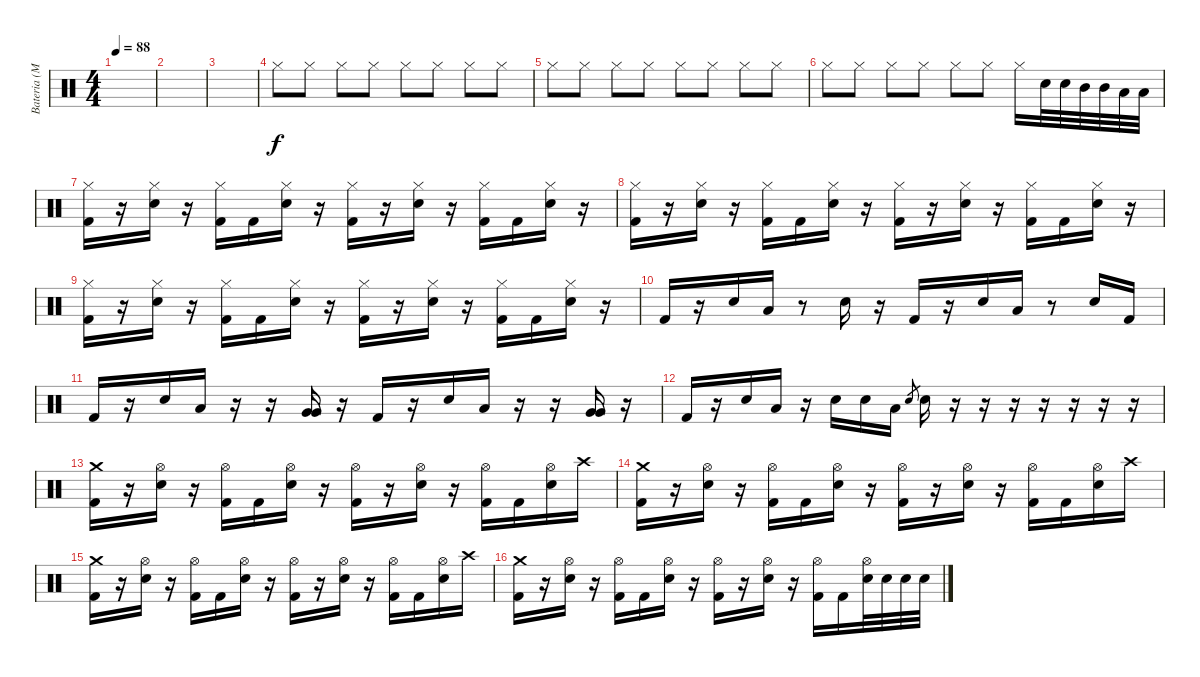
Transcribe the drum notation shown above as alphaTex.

\track ("Bateria (Matt)" "Bateria (M") {instrument percussion}
\staff {score}
\articulation defaults
\ts (4 4)
\tempo 88
\clef neutral
\ks c
|
|
|
"Hi-Hat (closed)".8 "Hi-Hat (closed)".8 "Hi-Hat (closed)".8 "Hi-Hat (closed)".8 "Hi-Hat (closed)".8 "Hi-Hat (closed)".8 "Hi-Hat (closed)".8 "Hi-Hat (closed)".8 |
"Hi-Hat (closed)".8 "Hi-Hat (closed)".8 "Hi-Hat (closed)".8 "Hi-Hat (closed)".8 "Hi-Hat (closed)".8 "Hi-Hat (closed)".8 "Hi-Hat (closed)".8 "Hi-Hat (closed)".8 |
"Hi-Hat (closed)".8 "Hi-Hat (closed)".8 "Hi-Hat (closed)".8 "Hi-Hat (closed)".8 "Hi-Hat (closed)".8 "Hi-Hat (closed)".8 "Hi-Hat (closed)".16 "Electric Snare (hit)".32 "Electric Snare (hit)".32 "Mid Tom (hit)".32 "Mid Tom (hit)".32 "Low Tom (hit)".32 "Low Tom (hit)".32 |
("Hi-Hat (closed)" "Kick (hit) 2").16 r.16 ("Hi-Hat (closed)" "Electric Snare (hit)").16 r.16 ("Hi-Hat (closed)" "Kick (hit) 2").16 "Kick (hit) 2".16 ("Hi-Hat (closed)" "Electric Snare (hit)").16 r.16 ("Hi-Hat (closed)" "Kick (hit) 2").16 r.16 ("Hi-Hat (closed)" "Electric Snare (hit)").16 r.16 ("Hi-Hat (closed)" "Kick (hit) 2").16 "Kick (hit) 2".16 ("Hi-Hat (closed)" "Electric Snare (hit)").16 r.16 |
("Hi-Hat (closed)" "Kick (hit) 2").16 r.16 ("Hi-Hat (closed)" "Electric Snare (hit)").16 r.16 ("Hi-Hat (closed)" "Kick (hit) 2").16 "Kick (hit) 2".16 ("Hi-Hat (closed)" "Electric Snare (hit)").16 r.16 ("Hi-Hat (closed)" "Kick (hit) 2").16 r.16 ("Hi-Hat (closed)" "Electric Snare (hit)").16 r.16 ("Hi-Hat (closed)" "Kick (hit) 2").16 "Kick (hit) 2".16 ("Hi-Hat (closed)" "Electric Snare (hit)").16 r.16 |
("Hi-Hat (closed)" "Kick (hit) 2").16 r.16 ("Hi-Hat (closed)" "Electric Snare (hit)").16 r.16 ("Hi-Hat (closed)" "Kick (hit) 2").16 "Kick (hit) 2".16 ("Hi-Hat (closed)" "Electric Snare (hit)").16 r.16 ("Hi-Hat (closed)" "Kick (hit) 2").16 r.16 ("Hi-Hat (closed)" "Electric Snare (hit)").16 r.16 ("Hi-Hat (closed)" "Kick (hit) 2").16 "Kick (hit) 2".16 ("Hi-Hat (closed)" "Electric Snare (hit)").16 r.16 |
"Kick (hit) 2".16 r.16 "Electric Snare (hit)".16 "Low Tom (hit)".16 r.8 "Electric Snare (hit)".16 r.16 "Kick (hit) 2".16 r.16 "Electric Snare (hit)".16 "Low Tom (hit)".16 r.8 "Electric Snare (hit)".16 "Kick (hit) 2".16 |
"Kick (hit) 2".16 r.16 "Electric Snare (hit)".16 "Low Tom (hit)".16 r.16 r.16 ("Very Low Tom (hit)" "Very Low Tom (hit)").16 r.16 "Kick (hit) 2".16 r.16 "Electric Snare (hit)".16 "Low Tom (hit)".16 r.16 r.16 ("Very Low Tom (hit)" "Very Low Tom (hit)").16 r.16 |
"Kick (hit) 2".16 r.16 "Electric Snare (hit)".16 "Low Tom (hit)".16 r.16 "Electric Snare (hit)".16 "Electric Snare (hit)".16 "Low Tom (hit)".16 "Electric Snare (hit)".8{gr} "Electric Snare (hit)".16 r.16 r.16 r.16 r.16 r.16 r.16 r.16 |
("Crash medium (hit)" "Kick (hit) 2").16 r.16 ("Hi-Hat (open)" "Electric Snare (hit)").16 r.16 ("Hi-Hat (open)" "Kick (hit) 2").16 "Kick (hit) 2".16 ("Hi-Hat (open)" "Electric Snare (hit)").16 r.16 ("Hi-Hat (open)" "Kick (hit) 2").16 r.16 ("Hi-Hat (open)" "Electric Snare (hit)").16 r.16 ("Hi-Hat (open)" "Kick (hit) 2").16 "Kick (hit) 2".16 ("Hi-Hat (open)" "Electric Snare (hit)").16 "Crash high (hit)".16 |
("Crash medium (hit)" "Kick (hit) 2").16 r.16 ("Hi-Hat (open)" "Electric Snare (hit)").16 r.16 ("Hi-Hat (open)" "Kick (hit) 2").16 "Kick (hit) 2".16 ("Hi-Hat (open)" "Electric Snare (hit)").16 r.16 ("Hi-Hat (open)" "Kick (hit) 2").16 r.16 ("Hi-Hat (open)" "Electric Snare (hit)").16 r.16 ("Hi-Hat (open)" "Kick (hit) 2").16 "Kick (hit) 2".16 ("Hi-Hat (open)" "Electric Snare (hit)").16 "Crash high (hit)".16 |
("Crash medium (hit)" "Kick (hit) 2").16 r.16 ("Hi-Hat (open)" "Electric Snare (hit)").16 r.16 ("Hi-Hat (open)" "Kick (hit) 2").16 "Kick (hit) 2".16 ("Hi-Hat (open)" "Electric Snare (hit)").16 r.16 ("Hi-Hat (open)" "Kick (hit) 2").16 r.16 ("Hi-Hat (open)" "Electric Snare (hit)").16 r.16 ("Hi-Hat (open)" "Kick (hit) 2").16 "Kick (hit) 2".16 ("Hi-Hat (open)" "Electric Snare (hit)").16 "Crash high (hit)".16 |
("Crash medium (hit)" "Kick (hit) 2").16 r.16 ("Hi-Hat (open)" "Electric Snare (hit)").16 r.16 ("Hi-Hat (open)" "Kick (hit) 2").16 "Kick (hit) 2".16 ("Hi-Hat (open)" "Electric Snare (hit)").16 r.16 ("Hi-Hat (open)" "Kick (hit) 2").16 r.16 ("Hi-Hat (open)" "Electric Snare (hit)").16 r.16 ("Hi-Hat (open)" "Kick (hit) 2").16 "Kick (hit) 2".16 ("Hi-Hat (open)" "Electric Snare (hit)").32 "Electric Snare (hit)".32 "Electric Snare (hit)".32 "Electric Snare (hit)".32
